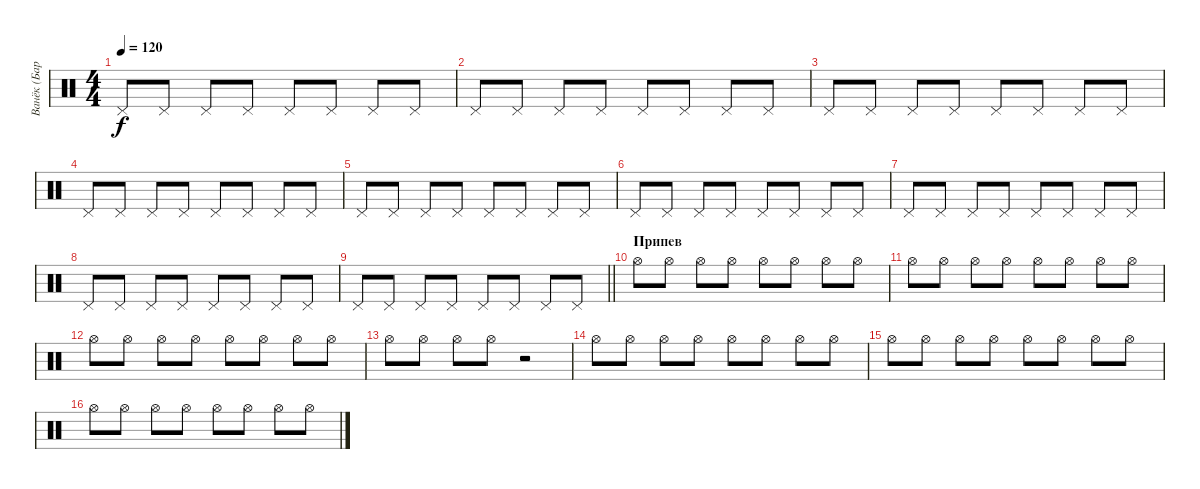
\track ("Ванёк (Барабанщик)" "Ванёк (Бар") {instrument percussion}
\staff {score}
\articulation defaults
\ts (4 4)
\tempo 120
\clef neutral
\ks c "Pedal Hi-Hat (hit)".8{dy f} "Pedal Hi-Hat (hit)".8 "Pedal Hi-Hat (hit)".8 "Pedal Hi-Hat (hit)".8 "Pedal Hi-Hat (hit)".8 "Pedal Hi-Hat (hit)".8 "Pedal Hi-Hat (hit)".8 "Pedal Hi-Hat (hit)".8
|
"Pedal Hi-Hat (hit)".8 "Pedal Hi-Hat (hit)".8 "Pedal Hi-Hat (hit)".8 "Pedal Hi-Hat (hit)".8 "Pedal Hi-Hat (hit)".8 "Pedal Hi-Hat (hit)".8 "Pedal Hi-Hat (hit)".8 "Pedal Hi-Hat (hit)".8 |
"Pedal Hi-Hat (hit)".8 "Pedal Hi-Hat (hit)".8 "Pedal Hi-Hat (hit)".8 "Pedal Hi-Hat (hit)".8 "Pedal Hi-Hat (hit)".8 "Pedal Hi-Hat (hit)".8 "Pedal Hi-Hat (hit)".8 "Pedal Hi-Hat (hit)".8 |
"Pedal Hi-Hat (hit)".8 "Pedal Hi-Hat (hit)".8 "Pedal Hi-Hat (hit)".8 "Pedal Hi-Hat (hit)".8 "Pedal Hi-Hat (hit)".8 "Pedal Hi-Hat (hit)".8 "Pedal Hi-Hat (hit)".8 "Pedal Hi-Hat (hit)".8 |
"Pedal Hi-Hat (hit)".8 "Pedal Hi-Hat (hit)".8 "Pedal Hi-Hat (hit)".8 "Pedal Hi-Hat (hit)".8 "Pedal Hi-Hat (hit)".8 "Pedal Hi-Hat (hit)".8 "Pedal Hi-Hat (hit)".8 "Pedal Hi-Hat (hit)".8 |
"Pedal Hi-Hat (hit)".8 "Pedal Hi-Hat (hit)".8 "Pedal Hi-Hat (hit)".8 "Pedal Hi-Hat (hit)".8 "Pedal Hi-Hat (hit)".8 "Pedal Hi-Hat (hit)".8 "Pedal Hi-Hat (hit)".8 "Pedal Hi-Hat (hit)".8 |
"Pedal Hi-Hat (hit)".8 "Pedal Hi-Hat (hit)".8 "Pedal Hi-Hat (hit)".8 "Pedal Hi-Hat (hit)".8 "Pedal Hi-Hat (hit)".8 "Pedal Hi-Hat (hit)".8 "Pedal Hi-Hat (hit)".8 "Pedal Hi-Hat (hit)".8 |
"Pedal Hi-Hat (hit)".8 "Pedal Hi-Hat (hit)".8 "Pedal Hi-Hat (hit)".8 "Pedal Hi-Hat (hit)".8 "Pedal Hi-Hat (hit)".8 "Pedal Hi-Hat (hit)".8 "Pedal Hi-Hat (hit)".8 "Pedal Hi-Hat (hit)".8 |
\barLineRight lightlight "Pedal Hi-Hat (hit)".8 "Pedal Hi-Hat (hit)".8 "Pedal Hi-Hat (hit)".8 "Pedal Hi-Hat (hit)".8 "Pedal Hi-Hat (hit)".8 "Pedal Hi-Hat (hit)".8 "Pedal Hi-Hat (hit)".8 "Pedal Hi-Hat (hit)".8
|
\section ("" "Припев")
"Hi-Hat (open)".8 "Hi-Hat (open)".8 "Hi-Hat (open)".8 "Hi-Hat (open)".8 "Hi-Hat (open)".8 "Hi-Hat (open)".8 "Hi-Hat (open)".8 "Hi-Hat (open)".8 |
"Hi-Hat (open)".8 "Hi-Hat (open)".8 "Hi-Hat (open)".8 "Hi-Hat (open)".8 "Hi-Hat (open)".8 "Hi-Hat (open)".8 "Hi-Hat (open)".8 "Hi-Hat (open)".8 |
"Hi-Hat (open)".8 "Hi-Hat (open)".8 "Hi-Hat (open)".8 "Hi-Hat (open)".8 "Hi-Hat (open)".8 "Hi-Hat (open)".8 "Hi-Hat (open)".8 "Hi-Hat (open)".8 |
"Hi-Hat (open)".8 "Hi-Hat (open)".8 "Hi-Hat (open)".8 "Hi-Hat (open)".8 r.2 |
"Hi-Hat (open)".8 "Hi-Hat (open)".8 "Hi-Hat (open)".8 "Hi-Hat (open)".8 "Hi-Hat (open)".8 "Hi-Hat (open)".8 "Hi-Hat (open)".8 "Hi-Hat (open)".8 |
"Hi-Hat (open)".8 "Hi-Hat (open)".8 "Hi-Hat (open)".8 "Hi-Hat (open)".8 "Hi-Hat (open)".8 "Hi-Hat (open)".8 "Hi-Hat (open)".8 "Hi-Hat (open)".8 |
"Hi-Hat (open)".8 "Hi-Hat (open)".8 "Hi-Hat (open)".8 "Hi-Hat (open)".8 "Hi-Hat (open)".8 "Hi-Hat (open)".8 "Hi-Hat (open)".8 "Hi-Hat (open)".8
